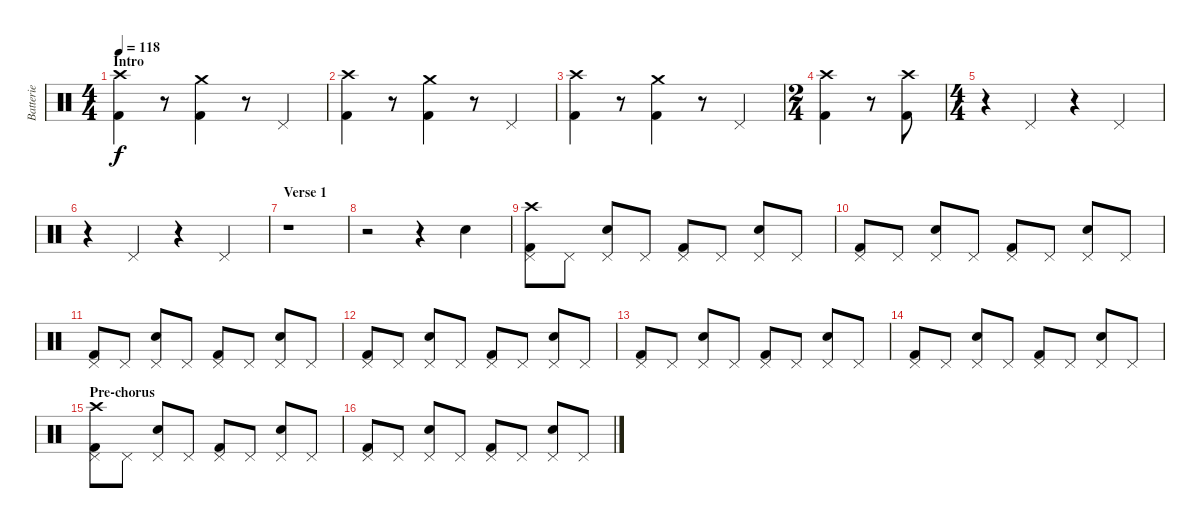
\track ("Batterie" "Batterie") {instrument percussion}
\staff {score}
\articulation defaults
\ts (4 4)
\section ("" "Intro")
\tempo 118
\clef neutral
\ks c
("Crash high (hit)" "Kick (hit) 2").4{dy f} r.8 ("Crash medium (hit)" "Kick (hit) 2").4 r.8 "Pedal Hi-Hat (hit)".4 |
("Crash high (hit)" "Kick (hit) 2").4 r.8 ("Crash medium (hit)" "Kick (hit) 2").4 r.8 "Pedal Hi-Hat (hit)".4 |
("Crash high (hit)" "Kick (hit) 2").4 r.8 ("Crash medium (hit)" "Kick (hit) 2").4 r.8 "Pedal Hi-Hat (hit)".4 |
\ts (2 4)
("Crash high (hit)" "Kick (hit) 2").4 r.8 ("Crash high (hit)" "Kick (hit) 2").8 |
\ts (4 4)
r.4 "Pedal Hi-Hat (hit)".4 r.4 "Pedal Hi-Hat (hit)".4 |
r.4 "Pedal Hi-Hat (hit)".4 r.4 "Pedal Hi-Hat (hit)".4 |
\section ("" "Verse 1")
r.1 |
r.2 r.4 "Snare (hit) 2".4 |
("Pedal Hi-Hat (hit)" "Crash high (hit)" "Kick (hit) 2").8 "Pedal Hi-Hat (hit)".8 ("Pedal Hi-Hat (hit)" "Snare (hit) 2").8 "Pedal Hi-Hat (hit)".8 ("Pedal Hi-Hat (hit)" "Kick (hit) 2").8 "Pedal Hi-Hat (hit)".8 ("Pedal Hi-Hat (hit)" "Snare (hit) 2").8 "Pedal Hi-Hat (hit)".8 |
("Pedal Hi-Hat (hit)" "Kick (hit) 2").8 "Pedal Hi-Hat (hit)".8 ("Pedal Hi-Hat (hit)" "Snare (hit) 2").8 "Pedal Hi-Hat (hit)".8 ("Pedal Hi-Hat (hit)" "Kick (hit) 2").8 "Pedal Hi-Hat (hit)".8 ("Pedal Hi-Hat (hit)" "Snare (hit) 2").8 "Pedal Hi-Hat (hit)".8 |
("Pedal Hi-Hat (hit)" "Kick (hit) 2").8 "Pedal Hi-Hat (hit)".8 ("Pedal Hi-Hat (hit)" "Snare (hit) 2").8 "Pedal Hi-Hat (hit)".8 ("Pedal Hi-Hat (hit)" "Kick (hit) 2").8 "Pedal Hi-Hat (hit)".8 ("Pedal Hi-Hat (hit)" "Snare (hit) 2").8 "Pedal Hi-Hat (hit)".8 |
("Pedal Hi-Hat (hit)" "Kick (hit) 2").8 "Pedal Hi-Hat (hit)".8 ("Pedal Hi-Hat (hit)" "Snare (hit) 2").8 "Pedal Hi-Hat (hit)".8 ("Pedal Hi-Hat (hit)" "Kick (hit) 2").8 "Pedal Hi-Hat (hit)".8 ("Pedal Hi-Hat (hit)" "Snare (hit) 2").8 "Pedal Hi-Hat (hit)".8 |
("Pedal Hi-Hat (hit)" "Kick (hit) 2").8 "Pedal Hi-Hat (hit)".8 ("Pedal Hi-Hat (hit)" "Snare (hit) 2").8 "Pedal Hi-Hat (hit)".8 ("Pedal Hi-Hat (hit)" "Kick (hit) 2").8 "Pedal Hi-Hat (hit)".8 ("Pedal Hi-Hat (hit)" "Snare (hit) 2").8 "Pedal Hi-Hat (hit)".8 |
("Pedal Hi-Hat (hit)" "Kick (hit) 2").8 "Pedal Hi-Hat (hit)".8 ("Pedal Hi-Hat (hit)" "Snare (hit) 2").8 "Pedal Hi-Hat (hit)".8 ("Pedal Hi-Hat (hit)" "Kick (hit) 2").8 "Pedal Hi-Hat (hit)".8 ("Pedal Hi-Hat (hit)" "Snare (hit) 2").8 "Pedal Hi-Hat (hit)".8 |
\section ("" "Pre-chorus")
("Pedal Hi-Hat (hit)" "Crash high (hit)" "Kick (hit) 2").8 "Pedal Hi-Hat (hit)".8 ("Pedal Hi-Hat (hit)" "Snare (hit) 2").8 "Pedal Hi-Hat (hit)".8 ("Pedal Hi-Hat (hit)" "Kick (hit) 2").8 "Pedal Hi-Hat (hit)".8 ("Pedal Hi-Hat (hit)" "Snare (hit) 2").8 "Pedal Hi-Hat (hit)".8 |
("Pedal Hi-Hat (hit)" "Kick (hit) 2").8 "Pedal Hi-Hat (hit)".8 ("Pedal Hi-Hat (hit)" "Snare (hit) 2").8 "Pedal Hi-Hat (hit)".8 ("Pedal Hi-Hat (hit)" "Kick (hit) 2").8 "Pedal Hi-Hat (hit)".8 ("Pedal Hi-Hat (hit)" "Snare (hit) 2").8 "Pedal Hi-Hat (hit)".8
